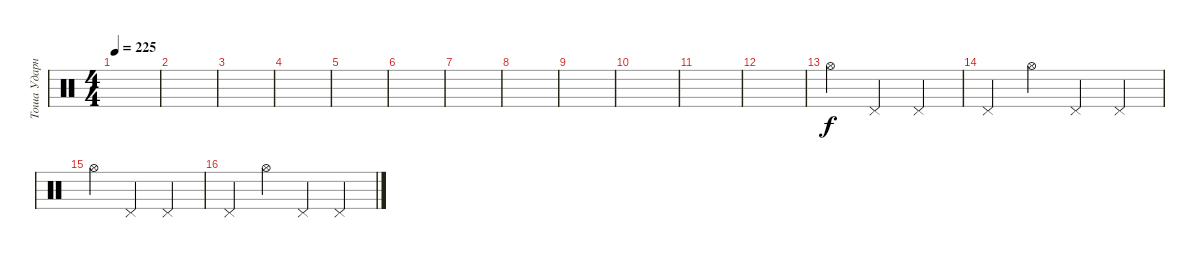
\track ("Тоша Ударные" "Тоша Ударн") {instrument percussion}
\staff {score}
\articulation defaults
\ts (4 4)
\tempo 225
\clef neutral
\ks c
|
|
|
|
|
|
|
|
|
|
|
|
"Hi-Hat (open)".4 "Pedal Hi-Hat (hit)".4 "Pedal Hi-Hat (hit)".4 |
"Pedal Hi-Hat (hit)".4 "Hi-Hat (open)".4 "Pedal Hi-Hat (hit)".4 "Pedal Hi-Hat (hit)".4 |
"Hi-Hat (open)".4 "Pedal Hi-Hat (hit)".4 "Pedal Hi-Hat (hit)".4 |
"Pedal Hi-Hat (hit)".4 "Hi-Hat (open)".4 "Pedal Hi-Hat (hit)".4 "Pedal Hi-Hat (hit)".4
